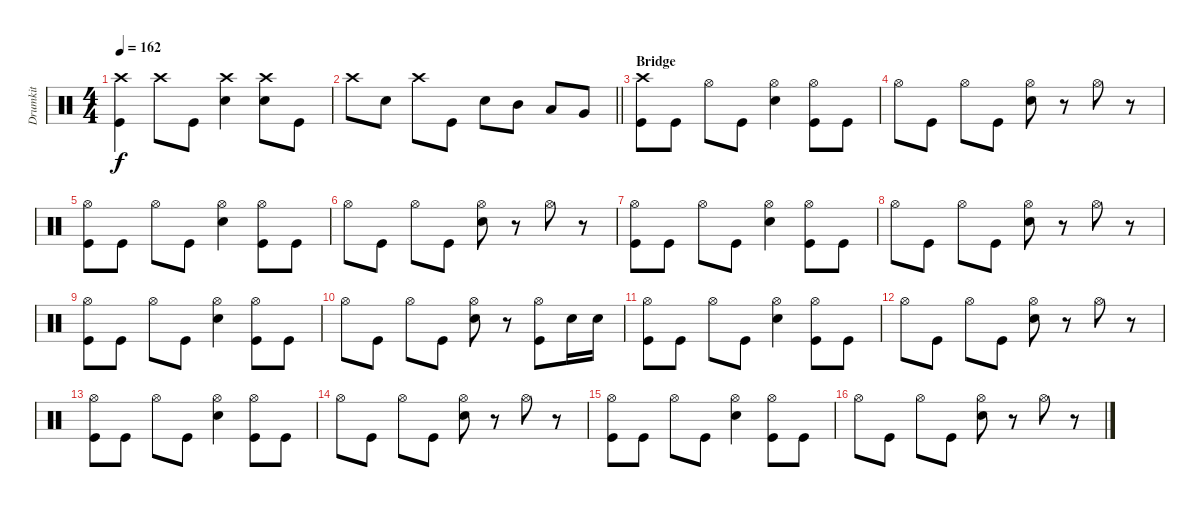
\track ("Drumkit" "Drumkit") {instrument percussion}
\staff {score}
\articulation defaults
\ts (4 4)
\tempo 162
\clef neutral
\ks c
("Kick (hit)" "Crash high (hit)").4{dy f} "Crash high (hit)".8 "Kick (hit)".8 ("Snare (hit) 2" "Crash high (hit)").4 ("Snare (hit) 2" "Crash high (hit)").8 "Kick (hit)".8 |
\barLineRight lightlight "Crash high (hit)".8 "Snare (hit) 2".8 "Crash high (hit)".8 "Kick (hit)".8 "Snare (hit) 2".8 "Mid Tom (hit)".8 "Low Tom (hit)".8 "Very Low Tom (hit)".8
|
\section ("" "Bridge")
("Kick (hit)" "Crash high (hit)").8 "Kick (hit)".8 "Hi-Hat (open)".8 "Kick (hit)".8 ("Snare (hit) 2" "Hi-Hat (open)").4 ("Hi-Hat (open)" "Kick (hit)").8 "Kick (hit)".8 |
"Hi-Hat (open)".8 "Kick (hit)".8 "Hi-Hat (open)".8 "Kick (hit)".8 ("Hi-Hat (open)" "Snare (hit) 2").8 r.8 "Hi-Hat (open)".8 r.8 |
("Hi-Hat (open)" "Kick (hit)").8 "Kick (hit)".8 "Hi-Hat (open)".8 "Kick (hit)".8 ("Snare (hit) 2" "Hi-Hat (open)").4 ("Hi-Hat (open)" "Kick (hit)").8 "Kick (hit)".8 |
"Hi-Hat (open)".8 "Kick (hit)".8 "Hi-Hat (open)".8 "Kick (hit)".8 ("Hi-Hat (open)" "Snare (hit) 2").8 r.8 "Hi-Hat (open)".8 r.8 |
("Hi-Hat (open)" "Kick (hit)").8 "Kick (hit)".8 "Hi-Hat (open)".8 "Kick (hit)".8 ("Snare (hit) 2" "Hi-Hat (open)").4 ("Hi-Hat (open)" "Kick (hit)").8 "Kick (hit)".8 |
"Hi-Hat (open)".8 "Kick (hit)".8 "Hi-Hat (open)".8 "Kick (hit)".8 ("Hi-Hat (open)" "Snare (hit) 2").8 r.8 "Hi-Hat (open)".8 r.8 |
("Hi-Hat (open)" "Kick (hit)").8 "Kick (hit)".8 "Hi-Hat (open)".8 "Kick (hit)".8 ("Snare (hit) 2" "Hi-Hat (open)").4 ("Hi-Hat (open)" "Kick (hit)").8 "Kick (hit)".8 |
"Hi-Hat (open)".8 "Kick (hit)".8 "Hi-Hat (open)".8 "Kick (hit)".8 ("Snare (hit) 2" "Hi-Hat (open)").8 r.8 ("Hi-Hat (open)" "Kick (hit)").8 "Snare (hit) 2".16 "Snare (hit) 2".16 |
("Hi-Hat (open)" "Kick (hit)").8 "Kick (hit)".8 "Hi-Hat (open)".8 "Kick (hit)".8 ("Snare (hit) 2" "Hi-Hat (open)").4 ("Hi-Hat (open)" "Kick (hit)").8 "Kick (hit)".8 |
"Hi-Hat (open)".8 "Kick (hit)".8 "Hi-Hat (open)".8 "Kick (hit)".8 ("Hi-Hat (open)" "Snare (hit) 2").8 r.8 "Hi-Hat (open)".8 r.8 |
("Hi-Hat (open)" "Kick (hit)").8 "Kick (hit)".8 "Hi-Hat (open)".8 "Kick (hit)".8 ("Snare (hit) 2" "Hi-Hat (open)").4 ("Hi-Hat (open)" "Kick (hit)").8 "Kick (hit)".8 |
"Hi-Hat (open)".8 "Kick (hit)".8 "Hi-Hat (open)".8 "Kick (hit)".8 ("Hi-Hat (open)" "Snare (hit) 2").8 r.8 "Hi-Hat (open)".8 r.8 |
("Hi-Hat (open)" "Kick (hit)").8 "Kick (hit)".8 "Hi-Hat (open)".8 "Kick (hit)".8 ("Snare (hit) 2" "Hi-Hat (open)").4 ("Hi-Hat (open)" "Kick (hit)").8 "Kick (hit)".8 |
"Hi-Hat (open)".8 "Kick (hit)".8 "Hi-Hat (open)".8 "Kick (hit)".8 ("Hi-Hat (open)" "Snare (hit) 2").8 r.8 "Hi-Hat (open)".8 r.8
